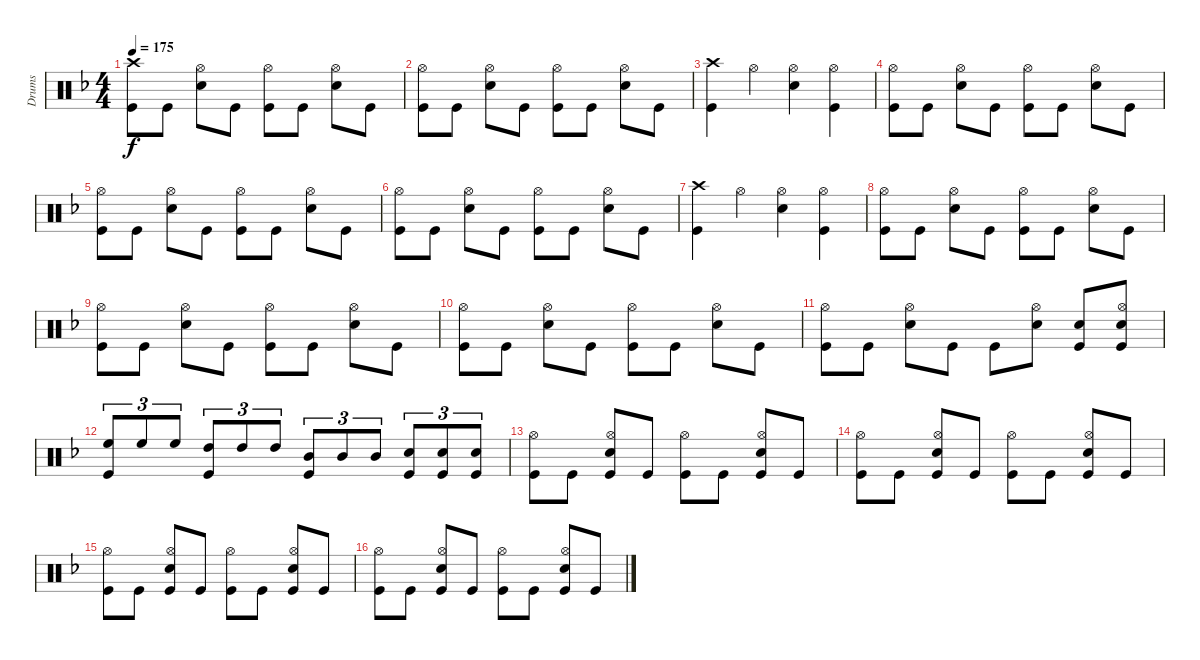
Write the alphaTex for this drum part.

\track ("Drums" "Drums") {instrument percussion}
\staff {score}
\articulation defaults
\ts (4 4)
\tempo 175
\clef neutral
\ks dminor
("Crash high (hit)" "Kick (hit)").8{dy f} "Kick (hit)".8 ("Hi-Hat (open)" "Electric Snare (hit)").8 "Kick (hit)".8 ("Hi-Hat (open)" "Kick (hit)").8 "Kick (hit)".8 ("Hi-Hat (open)" "Electric Snare (hit)").8 "Kick (hit)".8 |
("Hi-Hat (open)" "Kick (hit)").8 "Kick (hit)".8 ("Hi-Hat (open)" "Electric Snare (hit)").8 "Kick (hit)".8 ("Hi-Hat (open)" "Kick (hit)").8 "Kick (hit)".8 ("Hi-Hat (open)" "Electric Snare (hit)").8 "Kick (hit)".8 |
("Crash high (hit)" "Kick (hit)").4 "Hi-Hat (open)".4 ("Hi-Hat (open)" "Electric Snare (hit)").4 ("Hi-Hat (open)" "Kick (hit)").4 |
("Hi-Hat (open)" "Kick (hit)").8 "Kick (hit)".8 ("Hi-Hat (open)" "Electric Snare (hit)").8 "Kick (hit)".8 ("Hi-Hat (open)" "Kick (hit)").8 "Kick (hit)".8 ("Hi-Hat (open)" "Electric Snare (hit)").8 "Kick (hit)".8 |
("Hi-Hat (open)" "Kick (hit)").8 "Kick (hit)".8 ("Hi-Hat (open)" "Electric Snare (hit)").8 "Kick (hit)".8 ("Hi-Hat (open)" "Kick (hit)").8 "Kick (hit)".8 ("Hi-Hat (open)" "Electric Snare (hit)").8 "Kick (hit)".8 |
("Hi-Hat (open)" "Kick (hit)").8 "Kick (hit)".8 ("Hi-Hat (open)" "Electric Snare (hit)").8 "Kick (hit)".8 ("Hi-Hat (open)" "Kick (hit)").8 "Kick (hit)".8 ("Hi-Hat (open)" "Electric Snare (hit)").8 "Kick (hit)".8 |
("Crash high (hit)" "Kick (hit)").4 "Hi-Hat (open)".4 ("Hi-Hat (open)" "Electric Snare (hit)").4 ("Hi-Hat (open)" "Kick (hit)").4 |
("Hi-Hat (open)" "Kick (hit)").8 "Kick (hit)".8 ("Hi-Hat (open)" "Electric Snare (hit)").8 "Kick (hit)".8 ("Hi-Hat (open)" "Kick (hit)").8 "Kick (hit)".8 ("Hi-Hat (open)" "Electric Snare (hit)").8 "Kick (hit)".8 |
("Hi-Hat (open)" "Kick (hit)").8 "Kick (hit)".8 ("Hi-Hat (open)" "Electric Snare (hit)").8 "Kick (hit)".8 ("Hi-Hat (open)" "Kick (hit)").8 "Kick (hit)".8 ("Hi-Hat (open)" "Electric Snare (hit)").8 "Kick (hit)".8 |
("Hi-Hat (open)" "Kick (hit)").8 "Kick (hit)".8 ("Hi-Hat (open)" "Electric Snare (hit)").8 "Kick (hit)".8 ("Hi-Hat (open)" "Kick (hit)").8 "Kick (hit)".8 ("Hi-Hat (open)" "Electric Snare (hit)").8 "Kick (hit)".8 |
("Hi-Hat (open)" "Kick (hit)").8 "Kick (hit)".8 ("Hi-Hat (open)" "Electric Snare (hit)").8 "Kick (hit)".8 "Kick (hit)".8 ("Hi-Hat (open)" "Electric Snare (hit)").8 ("Electric Snare (hit)" "Kick (hit)").8 ("Hi-Hat (open)" "Electric Snare (hit)" "Kick (hit)").8 |
("High Floor Tom (hit)" "Kick (hit)").8{tu (3 2)} "High Floor Tom (hit)".8{tu (3 2)} "High Floor Tom (hit)".8{tu (3 2)} ("High Tom (hit)" "Kick (hit)").8{tu (3 2)} "High Tom (hit)".8{tu (3 2)} "High Tom (hit)".8{tu (3 2)} ("Mid Tom (hit)" "Kick (hit)").8{tu (3 2)} "Mid Tom (hit)".8{tu (3 2)} "Mid Tom (hit)".8{tu (3 2)} ("Electric Snare (hit)" "Kick (hit)").8{tu (3 2)} ("Electric Snare (hit)" "Kick (hit)").8{tu (3 2)} ("Electric Snare (hit)" "Kick (hit)").8{tu (3 2)} |
("Hi-Hat (open)" "Kick (hit)").8 "Kick (hit)".8 ("Hi-Hat (open)" "Electric Snare (hit)" "Kick (hit)").8 "Kick (hit)".8 ("Hi-Hat (open)" "Kick (hit)").8 "Kick (hit)".8 ("Hi-Hat (open)" "Electric Snare (hit)" "Kick (hit)").8 "Kick (hit)".8 |
("Hi-Hat (open)" "Kick (hit)").8 "Kick (hit)".8 ("Hi-Hat (open)" "Electric Snare (hit)" "Kick (hit)").8 "Kick (hit)".8 ("Hi-Hat (open)" "Kick (hit)").8 "Kick (hit)".8 ("Hi-Hat (open)" "Electric Snare (hit)" "Kick (hit)").8 "Kick (hit)".8 |
("Hi-Hat (open)" "Kick (hit)").8 "Kick (hit)".8 ("Hi-Hat (open)" "Electric Snare (hit)" "Kick (hit)").8 "Kick (hit)".8 ("Hi-Hat (open)" "Kick (hit)").8 "Kick (hit)".8 ("Hi-Hat (open)" "Electric Snare (hit)" "Kick (hit)").8 "Kick (hit)".8 |
("Hi-Hat (open)" "Kick (hit)").8 "Kick (hit)".8 ("Hi-Hat (open)" "Electric Snare (hit)" "Kick (hit)").8 "Kick (hit)".8 ("Hi-Hat (open)" "Kick (hit)").8 "Kick (hit)".8 ("Hi-Hat (open)" "Electric Snare (hit)" "Kick (hit)").8 "Kick (hit)".8
